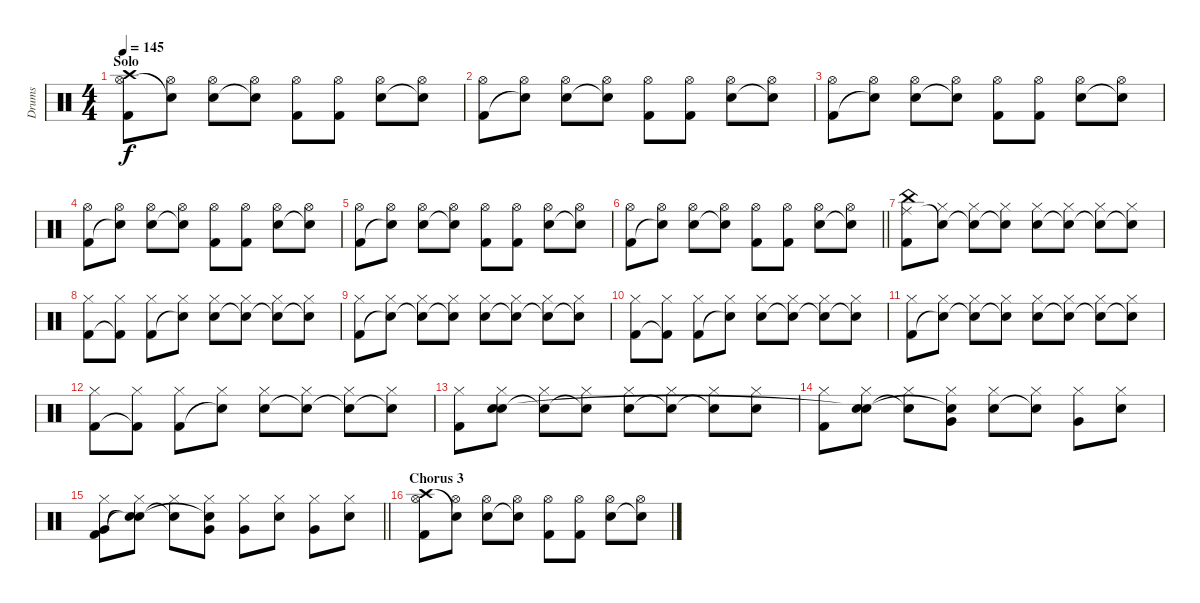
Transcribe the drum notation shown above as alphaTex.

\track ("Drums" "Drums") {instrument percussion}
\staff {score}
\articulation defaults
\ts (4 4)
\section ("" "Solo")
\tempo 145
\clef neutral
\ks c
("Crash high (hit)" "Hi-Hat (open)" "Kick (hit) 2").8{dy f} ("Hi-Hat (open)" "Snare (hit)"{t}).8 ("Hi-Hat (open)" "Electric Snare (hit)").8 ("Hi-Hat (open)" "Snare (hit)"{t}).8 ("Hi-Hat (open)" "Kick (hit) 2").8 ("Hi-Hat (open)" "Kick (hit) 2").8 ("Hi-Hat (open)" "Electric Snare (hit)").8 ("Hi-Hat (open)" "Snare (hit)"{t}).8 |
("Hi-Hat (open)" "Kick (hit) 2").8 ("Hi-Hat (open)" "Snare (hit)"{t}).8 ("Hi-Hat (open)" "Electric Snare (hit)").8 ("Hi-Hat (open)" "Snare (hit)"{t}).8 ("Hi-Hat (open)" "Kick (hit) 2").8 ("Hi-Hat (open)" "Kick (hit) 2").8 ("Hi-Hat (open)" "Electric Snare (hit)").8 ("Hi-Hat (open)" "Snare (hit)"{t}).8 |
("Hi-Hat (open)" "Kick (hit) 2").8 ("Hi-Hat (open)" "Snare (hit)"{t}).8 ("Hi-Hat (open)" "Electric Snare (hit)").8 ("Hi-Hat (open)" "Snare (hit)"{t}).8 ("Hi-Hat (open)" "Kick (hit) 2").8 ("Hi-Hat (open)" "Kick (hit) 2").8 ("Hi-Hat (open)" "Electric Snare (hit)").8 ("Hi-Hat (open)" "Snare (hit)"{t}).8 |
("Hi-Hat (open)" "Kick (hit) 2").8 ("Hi-Hat (open)" "Snare (hit)"{t}).8 ("Hi-Hat (open)" "Electric Snare (hit)").8 ("Hi-Hat (open)" "Snare (hit)"{t}).8 ("Hi-Hat (open)" "Kick (hit) 2").8 ("Hi-Hat (open)" "Kick (hit) 2").8 ("Hi-Hat (open)" "Electric Snare (hit)").8 ("Hi-Hat (open)" "Snare (hit)"{t}).8 |
("Hi-Hat (open)" "Kick (hit) 2").8 ("Hi-Hat (open)" "Snare (hit)"{t}).8 ("Hi-Hat (open)" "Electric Snare (hit)").8 ("Hi-Hat (open)" "Snare (hit)"{t}).8 ("Hi-Hat (open)" "Kick (hit) 2").8 ("Hi-Hat (open)" "Kick (hit) 2").8 ("Hi-Hat (open)" "Electric Snare (hit)").8 ("Hi-Hat (open)" "Snare (hit)"{t}).8 |
\barLineRight lightlight
("Hi-Hat (open)" "Kick (hit) 2").8 ("Hi-Hat (open)" "Snare (hit)"{t}).8 ("Hi-Hat (open)" "Electric Snare (hit)").8 ("Hi-Hat (open)" "Snare (hit)"{t}).8 ("Hi-Hat (open)" "Kick (hit) 2").8 ("Hi-Hat (open)" "Kick (hit) 2").8 ("Hi-Hat (open)" "Electric Snare (hit)").8 ("Hi-Hat (open)" "Snare (hit)"{t}).8 |
("China (hit)" "Ride (middle)" "Kick (hit) 2").8 ("Hi-Hat (closed)" "Snare (hit)"{t}).8 ("Hi-Hat (closed)" "Snare (hit)"{t}).8 ("Hi-Hat (closed)" "Snare (hit)"{t}).8 ("Hi-Hat (closed)" "Electric Snare (hit)").8 ("Hi-Hat (closed)" "Snare (hit)"{t}).8 ("Hi-Hat (closed)" "Snare (hit)"{t}).8 ("Hi-Hat (closed)" "Snare (hit)"{t}).8 |
("Hi-Hat (closed)" "Kick (hit) 2").8 ("Hi-Hat (closed)" "Kick (hit) 2"{t}).8 ("Hi-Hat (closed)" "Kick (hit) 2").8 ("Hi-Hat (closed)" "Snare (hit)"{t}).8 ("Hi-Hat (closed)" "Electric Snare (hit)").8 ("Hi-Hat (closed)" "Snare (hit)"{t}).8 ("Hi-Hat (closed)" "Snare (hit)"{t}).8 ("Hi-Hat (closed)" "Snare (hit)"{t}).8 |
("Hi-Hat (closed)" "Kick (hit) 2").8 ("Hi-Hat (closed)" "Snare (hit)"{t}).8 ("Hi-Hat (closed)" "Snare (hit)"{t}).8 ("Hi-Hat (closed)" "Snare (hit)"{t}).8 ("Hi-Hat (closed)" "Electric Snare (hit)").8 ("Hi-Hat (closed)" "Snare (hit)"{t}).8 ("Hi-Hat (closed)" "Snare (hit)"{t}).8 ("Hi-Hat (closed)" "Snare (hit)"{t}).8 |
("Hi-Hat (closed)" "Kick (hit) 2").8 ("Hi-Hat (closed)" "Kick (hit) 2"{t}).8 ("Hi-Hat (closed)" "Kick (hit) 2").8 ("Hi-Hat (closed)" "Snare (hit)"{t}).8 ("Hi-Hat (closed)" "Electric Snare (hit)").8 ("Hi-Hat (closed)" "Snare (hit)"{t}).8 ("Hi-Hat (closed)" "Snare (hit)"{t}).8 ("Hi-Hat (closed)" "Snare (hit)"{t}).8 |
("Hi-Hat (closed)" "Kick (hit) 2").8 ("Hi-Hat (closed)" "Snare (hit)"{t}).8 ("Hi-Hat (closed)" "Snare (hit)"{t}).8 ("Hi-Hat (closed)" "Snare (hit)"{t}).8 ("Hi-Hat (closed)" "Electric Snare (hit)").8 ("Hi-Hat (closed)" "Snare (hit)"{t}).8 ("Hi-Hat (closed)" "Snare (hit)"{t}).8 ("Hi-Hat (closed)" "Snare (hit)"{t}).8 |
("Hi-Hat (closed)" "Kick (hit) 2").8 ("Hi-Hat (closed)" "Kick (hit) 2"{t}).8 ("Hi-Hat (closed)" "Kick (hit) 2").8 ("Hi-Hat (closed)" "Snare (hit)"{t}).8 ("Hi-Hat (closed)" "Electric Snare (hit)").8 ("Hi-Hat (closed)" "Snare (hit)"{t}).8 ("Hi-Hat (closed)" "Snare (hit)"{t}).8 ("Hi-Hat (closed)" "Snare (hit)"{t}).8 |
("Hi-Hat (closed)" "Kick (hit) 2").8 ("Hi-Hat (closed)" "Electric Snare (hit)" "Snare (hit)").8 ("Hi-Hat (closed)" "Snare (hit)"{t}).8 ("Hi-Hat (closed)" "Snare (hit)"{t}).8 ("Hi-Hat (closed)" "Electric Snare (hit)").8 ("Hi-Hat (closed)" "Snare (hit)"{t}).8 ("Hi-Hat (closed)" "Snare (hit)"{t}).8 ("Hi-Hat (closed)" "Electric Snare (hit)").8 |
("Hi-Hat (closed)" "Kick (hit) 2").8 ("Hi-Hat (closed)" "Electric Snare (hit)" "Snare (hit)"{t}).8 ("Hi-Hat (closed)" "Snare (hit)"{t}).8 ("Hi-Hat (closed)" "Very Low Tom (hit)" "Snare (hit)"{t}).8 ("Hi-Hat (closed)" "Electric Snare (hit)").8 ("Hi-Hat (closed)" "Snare (hit)"{t}).8 ("Hi-Hat (closed)" "Very Low Tom (hit)").8 ("Hi-Hat (closed)" "Electric Snare (hit)").8 |
\barLineRight lightlight
("Hi-Hat (closed)" "Very Low Tom (hit)" "Kick (hit) 2").8 ("Hi-Hat (closed)" "Electric Snare (hit)"{t} "Snare (hit)"{t}).8 ("Hi-Hat (closed)" "Snare (hit)"{t}).8 ("Hi-Hat (closed)" "Very Low Tom (hit)" "Snare (hit)"{t}).8 ("Hi-Hat (closed)" "Very Low Tom (hit)").8 ("Hi-Hat (closed)" "Electric Snare (hit)").8 ("Hi-Hat (closed)" "Very Low Tom (hit)").8 ("Hi-Hat (closed)" "Electric Snare (hit)").8 |
\section ("" "Chorus 3")
("Hi-Hat (open)" "Crash high (hit)" "Kick (hit) 2").8 ("Hi-Hat (open)" "Snare (hit)"{t}).8 ("Hi-Hat (open)" "Electric Snare (hit)").8 ("Hi-Hat (open)" "Snare (hit)"{t}).8 ("Hi-Hat (open)" "Kick (hit) 2").8 ("Hi-Hat (open)" "Kick (hit) 2").8 ("Hi-Hat (open)" "Electric Snare (hit)").8 ("Hi-Hat (open)" "Snare (hit)"{t}).8
